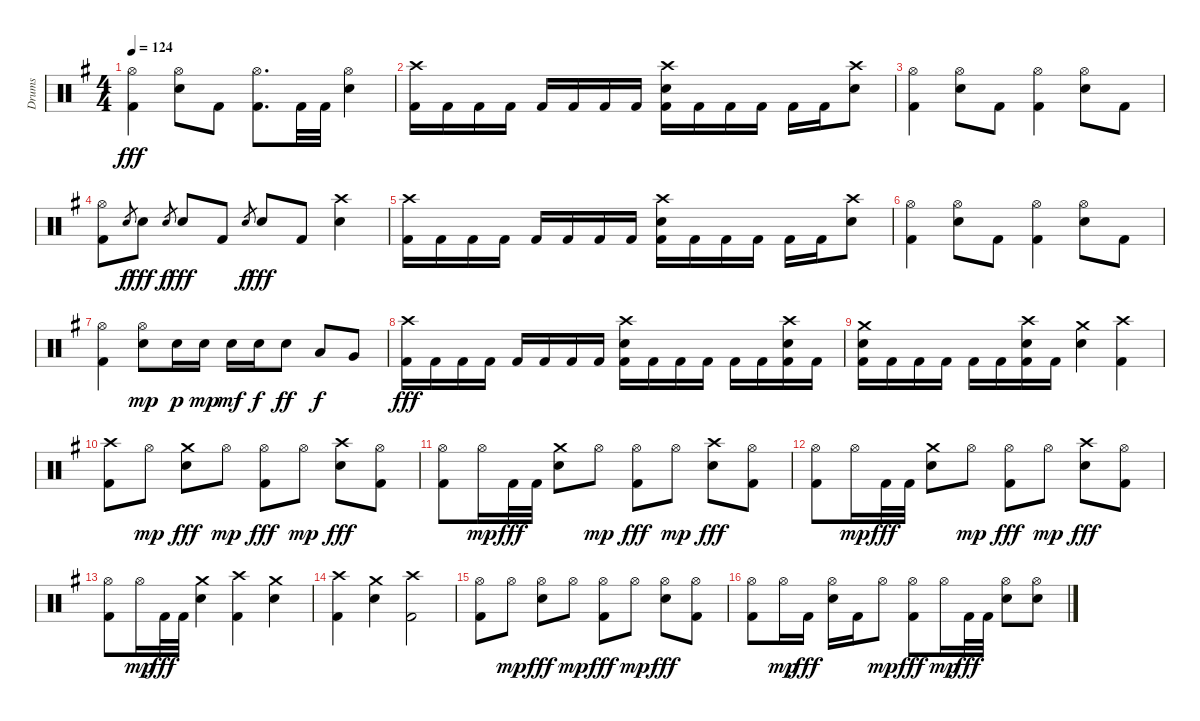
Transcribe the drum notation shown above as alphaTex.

\track ("Drums" "Drums") {instrument percussion}
\staff {score}
\articulation defaults
\ts (4 4)
\tempo 124
\clef neutral
\ks g
("Hi-Hat (open)" "Kick (hit) 2").4{dy fff} ("Hi-Hat (open)" "Electric Snare (hit)").8 "Kick (hit) 2".8 ("Hi-Hat (open)" "Kick (hit) 2").8{d} "Kick (hit) 2".32 "Kick (hit) 2".32 ("Hi-Hat (open)" "Electric Snare (hit)").4 |
("Crash high (hit)" "Kick (hit) 2").16 "Kick (hit) 2".16 "Kick (hit) 2".16 "Kick (hit) 2".16 "Kick (hit) 2".16 "Kick (hit) 2".16 "Kick (hit) 2".16 "Kick (hit) 2".16 ("Crash high (hit)" "Electric Snare (hit)" "Kick (hit) 2").16 "Kick (hit) 2".16 "Kick (hit) 2".16 "Kick (hit) 2".16 "Kick (hit) 2".16 "Kick (hit) 2".16 ("Crash high (hit)" "Electric Snare (hit)").8 |
("Hi-Hat (open)" "Kick (hit) 2").4 ("Hi-Hat (open)" "Electric Snare (hit)").8 "Kick (hit) 2".8 ("Hi-Hat (open)" "Kick (hit) 2").4 ("Hi-Hat (open)" "Electric Snare (hit)").8 "Kick (hit) 2".8 |
("Hi-Hat (open)" "Kick (hit) 2").8 "Electric Snare (hit)".8{gr dy f} "Electric Snare (hit)".8{dy fff} "Electric Snare (hit)".8{gr dy f} "Electric Snare (hit)".8{dy fff} "Kick (hit) 2".8 "Electric Snare (hit)".8{gr dy f} "Electric Snare (hit)".8{dy fff} "Kick (hit) 2".8 ("Crash high (hit)" "Electric Snare (hit)").4 |
("Crash high (hit)" "Kick (hit) 2").16 "Kick (hit) 2".16 "Kick (hit) 2".16 "Kick (hit) 2".16 "Kick (hit) 2".16 "Kick (hit) 2".16 "Kick (hit) 2".16 "Kick (hit) 2".16 ("Crash high (hit)" "Electric Snare (hit)" "Kick (hit) 2").16 "Kick (hit) 2".16 "Kick (hit) 2".16 "Kick (hit) 2".16 "Kick (hit) 2".16 "Kick (hit) 2".16 ("Crash high (hit)" "Electric Snare (hit)").8 |
("Hi-Hat (open)" "Kick (hit) 2").4 ("Hi-Hat (open)" "Electric Snare (hit)").8 "Kick (hit) 2".8 ("Hi-Hat (open)" "Kick (hit) 2").4 ("Hi-Hat (open)" "Electric Snare (hit)").8 "Kick (hit) 2".8 |
("Hi-Hat (open)" "Kick (hit) 2").4 ("Hi-Hat (open)" "Electric Snare (hit)").8{dy mp} "Electric Snare (hit)".16{dy p} "Electric Snare (hit)".16{dy mp} "Electric Snare (hit)".16{dy mf} "Electric Snare (hit)".16{dy f} "Electric Snare (hit)".8{dy ff} "Low Tom (hit)".8{dy f} "Very Low Tom (hit)".8 |
("Crash high (hit)" "Kick (hit) 2").16{dy fff} "Kick (hit) 2".16 "Kick (hit) 2".16 "Kick (hit) 2".16 "Kick (hit) 2".16 "Kick (hit) 2".16 "Kick (hit) 2".16 "Kick (hit) 2".16 ("Crash high (hit)" "Electric Snare (hit)" "Kick (hit) 2").16 "Kick (hit) 2".16 "Kick (hit) 2".16 "Kick (hit) 2".16 "Kick (hit) 2".16 "Kick (hit) 2".16 ("Crash high (hit)" "Electric Snare (hit)" "Kick (hit) 2").16 "Kick (hit) 2".16 |
("Crash medium (hit)" "Electric Snare (hit)" "Kick (hit) 2").16 "Kick (hit) 2".16 "Kick (hit) 2".16 "Kick (hit) 2".16 "Kick (hit) 2".16 "Kick (hit) 2".16 ("Crash high (hit)" "Electric Snare (hit)" "Kick (hit) 2").16 "Kick (hit) 2".16 ("Crash medium (hit)" "Electric Snare (hit)").4 ("Crash high (hit)" "Kick (hit) 2").4 |
("Crash high (hit)" "Kick (hit) 2").8 "Hi-Hat (open)".8{dy mp} ("Crash medium (hit)" "Electric Snare (hit)").8{dy fff} "Hi-Hat (open)".8{dy mp} ("Hi-Hat (open)" "Kick (hit) 2").8{dy fff} "Hi-Hat (open)".8{dy mp} ("Crash high (hit)" "Electric Snare (hit)").8{dy fff} ("Hi-Hat (open)" "Kick (hit) 2").8 |
("Hi-Hat (open)" "Kick (hit) 2").8 "Hi-Hat (open)".16{dy mp} "Kick (hit) 2".32{dy fff} "Kick (hit) 2".32 ("Crash medium (hit)" "Electric Snare (hit)").8 "Hi-Hat (open)".8{dy mp} ("Hi-Hat (open)" "Kick (hit) 2").8{dy fff} "Hi-Hat (open)".8{dy mp} ("Crash high (hit)" "Electric Snare (hit)").8{dy fff} ("Hi-Hat (open)" "Kick (hit) 2").8 |
("Hi-Hat (open)" "Kick (hit) 2").8 "Hi-Hat (open)".16{dy mp} "Kick (hit) 2".32{dy fff} "Kick (hit) 2".32 ("Crash medium (hit)" "Electric Snare (hit)").8 "Hi-Hat (open)".8{dy mp} ("Hi-Hat (open)" "Kick (hit) 2").8{dy fff} "Hi-Hat (open)".8{dy mp} ("Crash high (hit)" "Electric Snare (hit)").8{dy fff} ("Hi-Hat (open)" "Kick (hit) 2").8 |
("Hi-Hat (open)" "Kick (hit) 2").8 "Hi-Hat (open)".16{dy mp} "Kick (hit) 2".32{dy fff} "Kick (hit) 2".32 ("Crash medium (hit)" "Electric Snare (hit)").4 ("Crash high (hit)" "Kick (hit) 2").4 ("Crash medium (hit)" "Electric Snare (hit)").4 |
("Crash high (hit)" "Kick (hit) 2").4 ("Crash medium (hit)" "Electric Snare (hit)").4 ("Crash high (hit)" "Kick (hit) 2").2 |
("Hi-Hat (open)" "Kick (hit) 2").8 "Hi-Hat (open)".8{dy mp} ("Hi-Hat (open)" "Electric Snare (hit)").8{dy fff} "Hi-Hat (open)".8{dy mp} ("Hi-Hat (open)" "Kick (hit) 2").8{dy fff} "Hi-Hat (open)".8{dy mp} ("Hi-Hat (open)" "Electric Snare (hit)").8{dy fff} ("Hi-Hat (open)" "Kick (hit) 2").8 |
("Hi-Hat (open)" "Kick (hit) 2").8 "Hi-Hat (open)".16{dy mp} "Kick (hit) 2".16{dy fff} ("Hi-Hat (open)" "Electric Snare (hit)").16 "Kick (hit) 2".16 "Hi-Hat (open)".8{dy mp} ("Hi-Hat (open)" "Kick (hit) 2").8{dy fff} "Hi-Hat (open)".16{dy mp} "Kick (hit) 2".32{dy fff} "Kick (hit) 2".32 ("Hi-Hat (open)" "Electric Snare (hit)").8 ("Hi-Hat (open)" "Electric Snare (hit)").8
